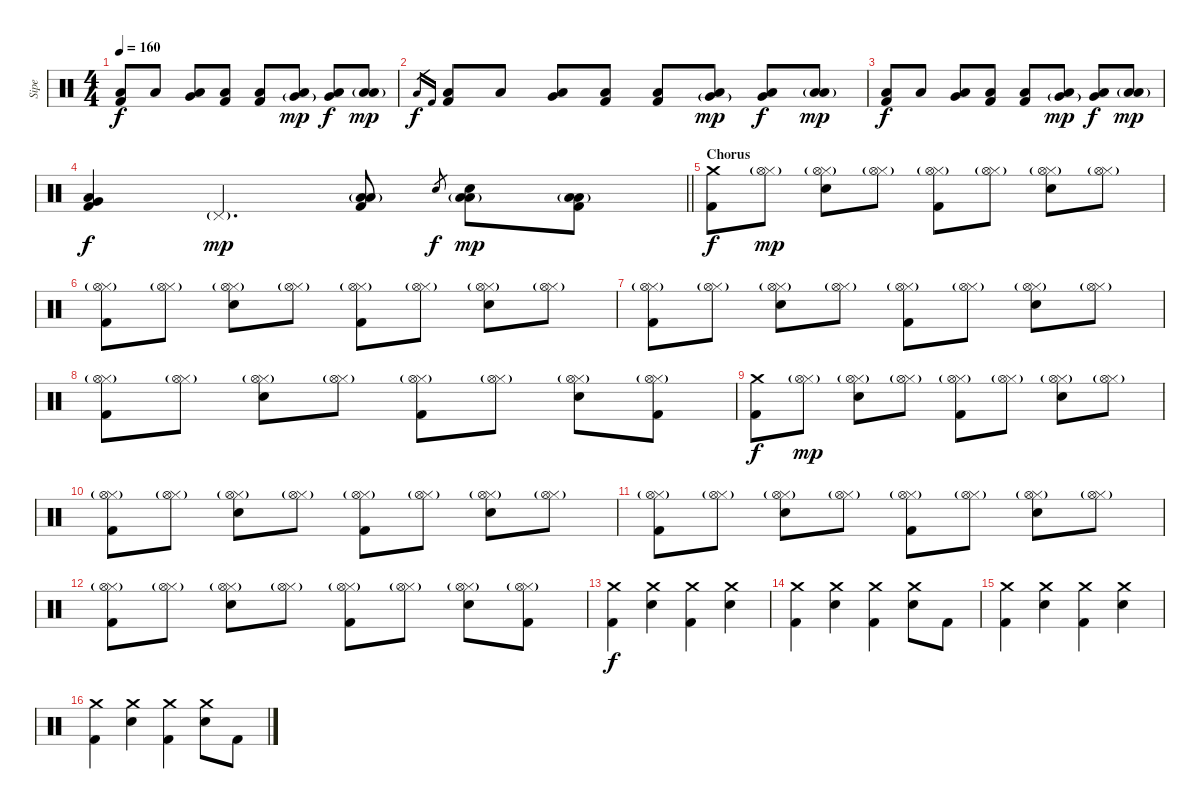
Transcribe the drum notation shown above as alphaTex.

\track ("Sipe" "Sipe") {instrument percussion}
\staff {score}
\articulation defaults
\ts (4 4)
\tempo 160
\clef neutral
\ks c
("Low Floor Tom (hit)" "Kick (hit) 2").8{dy f} "Low Floor Tom (hit)".8 ("Low Floor Tom (hit)" "Very Low Tom (hit)").8 ("Low Floor Tom (hit)" "Kick (hit) 2").8 ("Low Floor Tom (hit)" "Kick (hit) 2").8 ("Low Floor Tom (hit)" "Very Low Tom (hit)"{g}).8{dy mp} ("Low Floor Tom (hit)" "Very Low Tom (hit)").8{dy f} ("Low Floor Tom (hit)" "Low Tom (hit)"{g}).8{dy mp} |
"Low Floor Tom (hit)".16{gr dy f} "Kick (hit) 2".16{gr} ("Low Floor Tom (hit)" "Kick (hit) 2").8 "Low Floor Tom (hit)".8 ("Low Floor Tom (hit)" "Very Low Tom (hit)").8 ("Low Floor Tom (hit)" "Kick (hit) 2").8 ("Low Floor Tom (hit)" "Kick (hit) 2").8 ("Low Floor Tom (hit)" "Very Low Tom (hit)"{g}).8{dy mp} ("Low Floor Tom (hit)" "Very Low Tom (hit)").8{dy f} ("Low Floor Tom (hit)" "Low Tom (hit)"{g}).8{dy mp} |
("Low Floor Tom (hit)" "Kick (hit) 2").8{dy f} "Low Floor Tom (hit)".8 ("Low Floor Tom (hit)" "Very Low Tom (hit)").8 ("Low Floor Tom (hit)" "Kick (hit) 2").8 ("Low Floor Tom (hit)" "Kick (hit) 2").8 ("Low Floor Tom (hit)" "Very Low Tom (hit)"{g}).8{dy mp} ("Low Floor Tom (hit)" "Very Low Tom (hit)").8{dy f} ("Low Floor Tom (hit)" "Low Tom (hit)"{g}).8{dy mp} |
\barLineRight lightlight
("Low Floor Tom (hit)" "Very Low Tom (hit)" "Kick (hit) 2").4{dy f} "Pedal Hi-Hat (hit)"{g}.4{d dy mp} ("Kick (hit) 2" "Low Floor Tom (hit)" "Low Tom (hit)"{g}).8 "Snare (hit) 2".8{gr dy f} ("Snare (hit) 2" "Low Floor Tom (hit)" "Low Tom (hit)"{g}).8{dy mp} ("Kick (hit) 2" "Low Floor Tom (hit)" "Low Tom (hit)"{g}).8 |
\section ("" "Chorus")
("Crash medium (hit)" "Kick (hit) 2").8{dy f} ("Hi-Hat (closed)" "Hi-Hat (open)"{g}).8{dy mp} ("Hi-Hat (closed)" "Snare (hit) 2" "Hi-Hat (open)"{g}).8 ("Hi-Hat (closed)" "Hi-Hat (open)"{g}).8 ("Hi-Hat (closed)" "Kick (hit) 2" "Hi-Hat (open)"{g}).8 ("Hi-Hat (closed)" "Hi-Hat (open)"{g}).8 ("Hi-Hat (closed)" "Snare (hit) 2" "Hi-Hat (open)"{g}).8 ("Hi-Hat (closed)" "Hi-Hat (open)"{g}).8 |
("Hi-Hat (closed)" "Kick (hit) 2" "Hi-Hat (open)"{g}).8 ("Hi-Hat (closed)" "Hi-Hat (open)"{g}).8 ("Hi-Hat (closed)" "Snare (hit) 2" "Hi-Hat (open)"{g}).8 ("Hi-Hat (closed)" "Hi-Hat (open)"{g}).8 ("Hi-Hat (closed)" "Kick (hit) 2" "Hi-Hat (open)"{g}).8 ("Hi-Hat (closed)" "Hi-Hat (open)"{g}).8 ("Hi-Hat (closed)" "Snare (hit) 2" "Hi-Hat (open)"{g}).8 ("Hi-Hat (closed)" "Hi-Hat (open)"{g}).8 |
("Hi-Hat (closed)" "Kick (hit) 2" "Hi-Hat (open)"{g}).8 ("Hi-Hat (closed)" "Hi-Hat (open)"{g}).8 ("Hi-Hat (closed)" "Snare (hit) 2" "Hi-Hat (open)"{g}).8 ("Hi-Hat (closed)" "Hi-Hat (open)"{g}).8 ("Hi-Hat (closed)" "Kick (hit) 2" "Hi-Hat (open)"{g}).8 ("Hi-Hat (closed)" "Hi-Hat (open)"{g}).8 ("Hi-Hat (closed)" "Snare (hit) 2" "Hi-Hat (open)"{g}).8 ("Hi-Hat (closed)" "Hi-Hat (open)"{g}).8 |
("Hi-Hat (closed)" "Kick (hit) 2" "Hi-Hat (open)"{g}).8 ("Hi-Hat (closed)" "Hi-Hat (open)"{g}).8 ("Hi-Hat (closed)" "Snare (hit) 2" "Hi-Hat (open)"{g}).8 ("Hi-Hat (closed)" "Hi-Hat (open)"{g}).8 ("Hi-Hat (closed)" "Kick (hit) 2" "Hi-Hat (open)"{g}).8 ("Hi-Hat (closed)" "Hi-Hat (open)"{g}).8 ("Hi-Hat (closed)" "Snare (hit) 2" "Hi-Hat (open)"{g}).8 ("Hi-Hat (closed)" "Kick (hit) 2" "Hi-Hat (open)"{g}).8 |
("Crash medium (hit)" "Kick (hit) 2").8{dy f} ("Hi-Hat (closed)" "Hi-Hat (open)"{g}).8{dy mp} ("Hi-Hat (closed)" "Snare (hit) 2" "Hi-Hat (open)"{g}).8 ("Hi-Hat (closed)" "Hi-Hat (open)"{g}).8 ("Hi-Hat (closed)" "Kick (hit) 2" "Hi-Hat (open)"{g}).8 ("Hi-Hat (closed)" "Hi-Hat (open)"{g}).8 ("Hi-Hat (closed)" "Snare (hit) 2" "Hi-Hat (open)"{g}).8 ("Hi-Hat (closed)" "Hi-Hat (open)"{g}).8 |
("Hi-Hat (closed)" "Kick (hit) 2" "Hi-Hat (open)"{g}).8 ("Hi-Hat (closed)" "Hi-Hat (open)"{g}).8 ("Hi-Hat (closed)" "Snare (hit) 2" "Hi-Hat (open)"{g}).8 ("Hi-Hat (closed)" "Hi-Hat (open)"{g}).8 ("Hi-Hat (closed)" "Kick (hit) 2" "Hi-Hat (open)"{g}).8 ("Hi-Hat (closed)" "Hi-Hat (open)"{g}).8 ("Hi-Hat (closed)" "Snare (hit) 2" "Hi-Hat (open)"{g}).8 ("Hi-Hat (closed)" "Hi-Hat (open)"{g}).8 |
("Hi-Hat (closed)" "Kick (hit) 2" "Hi-Hat (open)"{g}).8 ("Hi-Hat (closed)" "Hi-Hat (open)"{g}).8 ("Hi-Hat (closed)" "Snare (hit) 2" "Hi-Hat (open)"{g}).8 ("Hi-Hat (closed)" "Hi-Hat (open)"{g}).8 ("Hi-Hat (closed)" "Kick (hit) 2" "Hi-Hat (open)"{g}).8 ("Hi-Hat (closed)" "Hi-Hat (open)"{g}).8 ("Hi-Hat (closed)" "Snare (hit) 2" "Hi-Hat (open)"{g}).8 ("Hi-Hat (closed)" "Hi-Hat (open)"{g}).8 |
("Hi-Hat (closed)" "Kick (hit) 2" "Hi-Hat (open)"{g}).8 ("Hi-Hat (closed)" "Hi-Hat (open)"{g}).8 ("Hi-Hat (closed)" "Snare (hit) 2" "Hi-Hat (open)"{g}).8 ("Hi-Hat (closed)" "Hi-Hat (open)"{g}).8 ("Hi-Hat (closed)" "Kick (hit) 2" "Hi-Hat (open)"{g}).8 ("Hi-Hat (closed)" "Hi-Hat (open)"{g}).8 ("Hi-Hat (closed)" "Snare (hit) 2" "Hi-Hat (open)"{g}).8 ("Hi-Hat (closed)" "Kick (hit) 2" "Hi-Hat (open)"{g}).8 |
("Crash medium (hit)" "Kick (hit) 2").4{dy f} ("Crash medium (hit)" "Snare (hit) 2").4 ("Crash medium (hit)" "Kick (hit) 2").4 ("Crash medium (hit)" "Snare (hit) 2").4 |
("Crash medium (hit)" "Kick (hit) 2").4 ("Crash medium (hit)" "Snare (hit) 2").4 ("Crash medium (hit)" "Kick (hit) 2").4 ("Crash medium (hit)" "Snare (hit) 2").8 "Kick (hit) 2".8 |
("Crash medium (hit)" "Kick (hit) 2").4 ("Crash medium (hit)" "Snare (hit) 2").4 ("Crash medium (hit)" "Kick (hit) 2").4 ("Crash medium (hit)" "Snare (hit) 2").4 |
("Crash medium (hit)" "Kick (hit) 2").4 ("Crash medium (hit)" "Snare (hit) 2").4 ("Crash medium (hit)" "Kick (hit) 2").4 ("Crash medium (hit)" "Snare (hit) 2").8 "Kick (hit) 2".8
